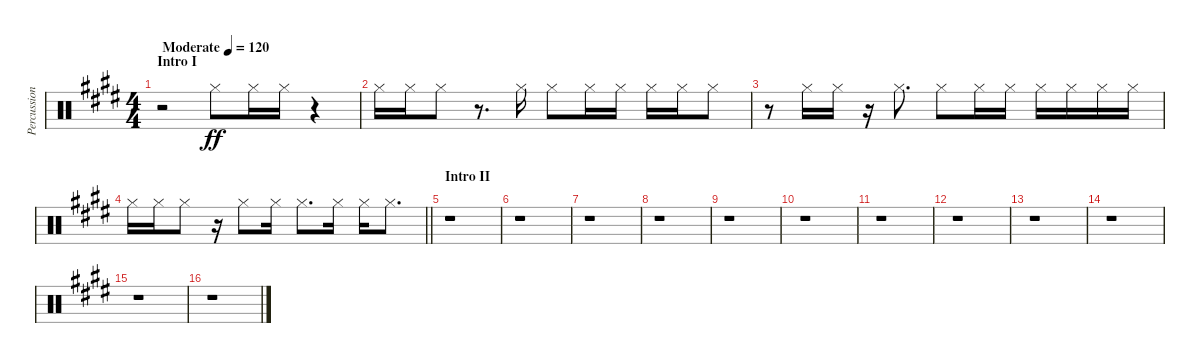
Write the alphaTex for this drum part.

\track ("Percussion VI" "Percussion") {instrument percussion}
\staff {score}
\articulation defaults
\ts (4 4)
\section ("" "Intro I")
\tempo (120 "Moderate")
\clef neutral
\ks e
r.2{dy ff} "Hi-Hat (closed)".8 "Hi-Hat (closed)".16 "Hi-Hat (closed)".16 r.4 |
"Hi-Hat (closed)".16 "Hi-Hat (closed)".16 "Hi-Hat (closed)".8 r.8{d} "Hi-Hat (closed)".16 "Hi-Hat (closed)".8 "Hi-Hat (closed)".16 "Hi-Hat (closed)".16 "Hi-Hat (closed)".16 "Hi-Hat (closed)".16 "Hi-Hat (closed)".8 |
r.8 "Hi-Hat (closed)".16 "Hi-Hat (closed)".16 r.16 "Hi-Hat (closed)".8{d} "Hi-Hat (closed)".8 "Hi-Hat (closed)".16 "Hi-Hat (closed)".16 "Hi-Hat (closed)".16 "Hi-Hat (closed)".16 "Hi-Hat (closed)".16 "Hi-Hat (closed)".16 |
\barLineRight lightlight "Hi-Hat (closed)".16 "Hi-Hat (closed)".16 "Hi-Hat (closed)".8
r.16 "Hi-Hat (closed)".8 "Hi-Hat (closed)".16 "Hi-Hat (closed)".8{d} "Hi-Hat (closed)".16 "Hi-Hat (closed)".16 "Hi-Hat (closed)".8{d} |
\section ("" "Intro II")
r.1 |
r.1 |
r.1 |
r.1 |
r.1 |
r.1 |
r.1 |
r.1 |
r.1 |
r.1 |
r.1 |
r.1
